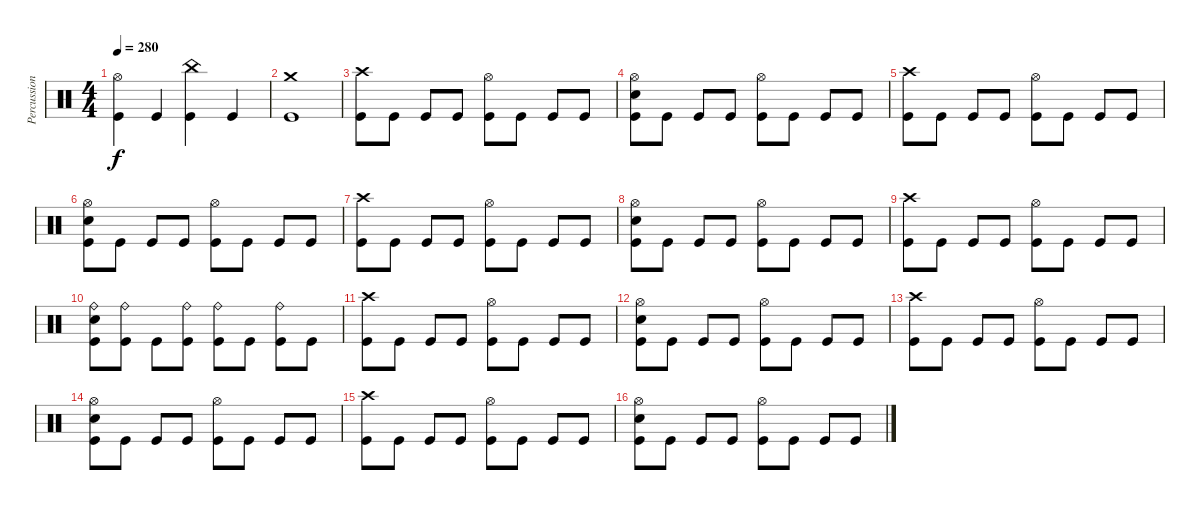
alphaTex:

\track ("Percussion" "Percussion") {instrument percussion}
\staff {score}
\articulation defaults
\ts (4 4)
\tempo 280
\clef neutral
\ks c
("Hi-Hat (open)" "Kick (hit)").4{dy f} "Kick (hit)".4 ("China (hit)" "Kick (hit)").4 "Kick (hit)".4 |
("Crash medium (hit)" "Kick (hit)").1 |
("Crash high (hit)" "Kick (hit)").8 "Kick (hit)".8 "Kick (hit)".8 "Kick (hit)".8 ("Hi-Hat (open)" "Kick (hit)").8 "Kick (hit)".8 "Kick (hit)".8 "Kick (hit)".8 |
("Hi-Hat (open)" "Electric Snare (hit)" "Kick (hit)").8 "Kick (hit)".8 "Kick (hit)".8 "Kick (hit)".8 ("Hi-Hat (open)" "Kick (hit)").8 "Kick (hit)".8 "Kick (hit)".8 "Kick (hit)".8 |
("Crash high (hit)" "Kick (hit)").8 "Kick (hit)".8 "Kick (hit)".8 "Kick (hit)".8 ("Hi-Hat (open)" "Kick (hit)").8 "Kick (hit)".8 "Kick (hit)".8 "Kick (hit)".8 |
("Hi-Hat (open)" "Electric Snare (hit)" "Kick (hit)").8 "Kick (hit)".8 "Kick (hit)".8 "Kick (hit)".8 ("Hi-Hat (open)" "Kick (hit)").8 "Kick (hit)".8 "Kick (hit)".8 "Kick (hit)".8 |
("Crash high (hit)" "Kick (hit)").8 "Kick (hit)".8 "Kick (hit)".8 "Kick (hit)".8 ("Hi-Hat (open)" "Kick (hit)").8 "Kick (hit)".8 "Kick (hit)".8 "Kick (hit)".8 |
("Hi-Hat (open)" "Electric Snare (hit)" "Kick (hit)").8 "Kick (hit)".8 "Kick (hit)".8 "Kick (hit)".8 ("Hi-Hat (open)" "Kick (hit)").8 "Kick (hit)".8 "Kick (hit)".8 "Kick (hit)".8 |
("Crash high (hit)" "Kick (hit)").8 "Kick (hit)".8 "Kick (hit)".8 "Kick (hit)".8 ("Hi-Hat (open)" "Kick (hit)").8 "Kick (hit)".8 "Kick (hit)".8 "Kick (hit)".8 |
("Ride (bell)" "Electric Snare (hit)" "Kick (hit)").8 ("Ride (bell)" "Kick (hit)").8 "Kick (hit)".8 ("Ride (bell)" "Kick (hit)").8 ("Ride (bell)" "Kick (hit)").8 "Kick (hit)".8 ("Ride (bell)" "Kick (hit)").8 "Kick (hit)".8 |
("Crash high (hit)" "Kick (hit)").8 "Kick (hit)".8 "Kick (hit)".8 "Kick (hit)".8 ("Hi-Hat (open)" "Kick (hit)").8 "Kick (hit)".8 "Kick (hit)".8 "Kick (hit)".8 |
("Hi-Hat (open)" "Electric Snare (hit)" "Kick (hit)").8 "Kick (hit)".8 "Kick (hit)".8 "Kick (hit)".8 ("Hi-Hat (open)" "Kick (hit)").8 "Kick (hit)".8 "Kick (hit)".8 "Kick (hit)".8 |
("Crash high (hit)" "Kick (hit)").8 "Kick (hit)".8 "Kick (hit)".8 "Kick (hit)".8 ("Hi-Hat (open)" "Kick (hit)").8 "Kick (hit)".8 "Kick (hit)".8 "Kick (hit)".8 |
("Hi-Hat (open)" "Electric Snare (hit)" "Kick (hit)").8 "Kick (hit)".8 "Kick (hit)".8 "Kick (hit)".8 ("Hi-Hat (open)" "Kick (hit)").8 "Kick (hit)".8 "Kick (hit)".8 "Kick (hit)".8 |
("Crash high (hit)" "Kick (hit)").8 "Kick (hit)".8 "Kick (hit)".8 "Kick (hit)".8 ("Hi-Hat (open)" "Kick (hit)").8 "Kick (hit)".8 "Kick (hit)".8 "Kick (hit)".8 |
("Hi-Hat (open)" "Electric Snare (hit)" "Kick (hit)").8 "Kick (hit)".8 "Kick (hit)".8 "Kick (hit)".8 ("Hi-Hat (open)" "Kick (hit)").8 "Kick (hit)".8 "Kick (hit)".8 "Kick (hit)".8
